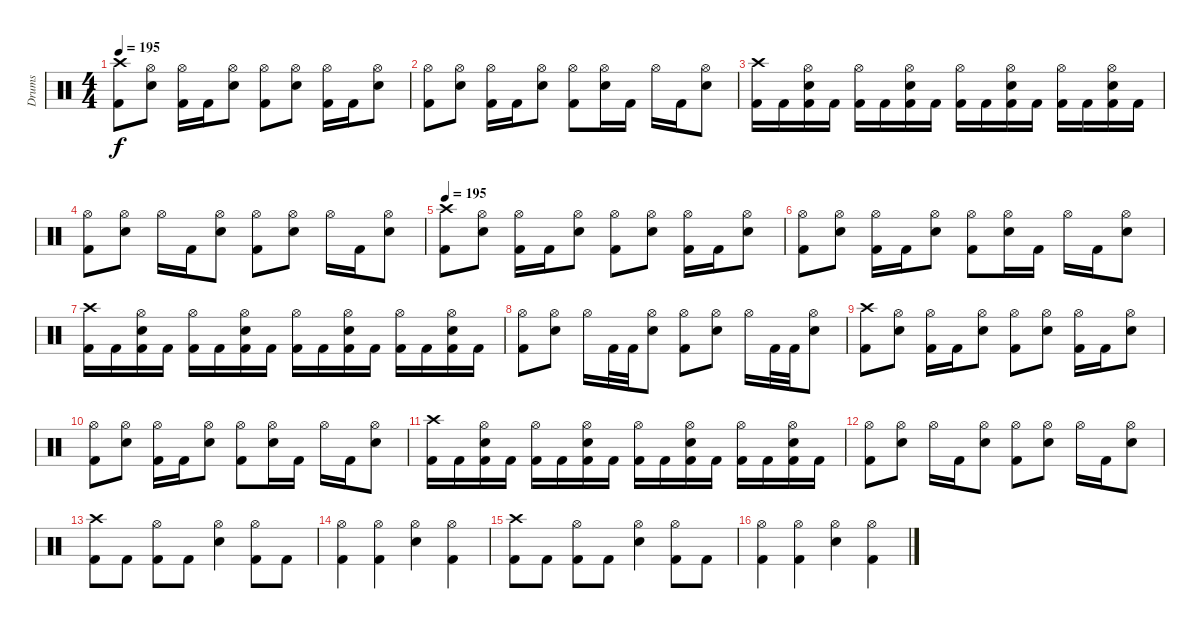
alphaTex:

\track ("Drums" "Drums") {instrument percussion}
\staff {score}
\articulation defaults
\ts (4 4)
\tempo 195
\clef neutral
\ks c
("Crash high (hit)" "Kick (hit) 2").8{dy f} ("Hi-Hat (open)" "Snare (hit) 2").8 ("Hi-Hat (open)" "Kick (hit) 2").16 "Kick (hit) 2".16 ("Hi-Hat (open)" "Snare (hit) 2").8 ("Hi-Hat (open)" "Kick (hit) 2").8 ("Hi-Hat (open)" "Snare (hit) 2").8 ("Hi-Hat (open)" "Kick (hit) 2").16 "Kick (hit) 2".16 ("Hi-Hat (open)" "Snare (hit) 2").8 |
("Hi-Hat (open)" "Kick (hit) 2").8 ("Hi-Hat (open)" "Snare (hit) 2").8 ("Hi-Hat (open)" "Kick (hit) 2").16 "Kick (hit) 2".16 ("Hi-Hat (open)" "Snare (hit) 2").8 ("Hi-Hat (open)" "Kick (hit) 2").8 ("Hi-Hat (open)" "Snare (hit) 2").16 "Kick (hit) 2".16 "Hi-Hat (open)".16 "Kick (hit) 2".16 ("Hi-Hat (open)" "Snare (hit) 2").8 |
("Crash high (hit)" "Kick (hit) 2").16 "Kick (hit) 2".16 ("Hi-Hat (open)" "Snare (hit) 2" "Kick (hit) 2").16 "Kick (hit) 2".16 ("Hi-Hat (open)" "Kick (hit) 2").16 "Kick (hit) 2".16 ("Hi-Hat (open)" "Snare (hit) 2" "Kick (hit) 2").16 "Kick (hit) 2".16 ("Hi-Hat (open)" "Kick (hit) 2").16 "Kick (hit) 2".16 ("Hi-Hat (open)" "Snare (hit) 2" "Kick (hit) 2").16 "Kick (hit) 2".16 ("Hi-Hat (open)" "Kick (hit) 2").16 "Kick (hit) 2".16 ("Hi-Hat (open)" "Snare (hit) 2" "Kick (hit) 2").16 "Kick (hit) 2".16 |
("Hi-Hat (open)" "Kick (hit) 2").8 ("Hi-Hat (open)" "Snare (hit) 2").8 "Hi-Hat (open)".16 "Kick (hit) 2".16 ("Hi-Hat (open)" "Snare (hit) 2").8 ("Hi-Hat (open)" "Kick (hit) 2").8 ("Hi-Hat (open)" "Snare (hit) 2").8 "Hi-Hat (open)".16 "Kick (hit) 2".16 ("Hi-Hat (open)" "Snare (hit) 2").8 |
\tempo 195
("Crash high (hit)" "Kick (hit) 2").8 ("Hi-Hat (open)" "Snare (hit) 2").8 ("Hi-Hat (open)" "Kick (hit) 2").16 "Kick (hit) 2".16 ("Hi-Hat (open)" "Snare (hit) 2").8 ("Hi-Hat (open)" "Kick (hit) 2").8 ("Hi-Hat (open)" "Snare (hit) 2").8 ("Hi-Hat (open)" "Kick (hit) 2").16 "Kick (hit) 2".16 ("Hi-Hat (open)" "Snare (hit) 2").8 |
("Hi-Hat (open)" "Kick (hit) 2").8 ("Hi-Hat (open)" "Snare (hit) 2").8 ("Hi-Hat (open)" "Kick (hit) 2").16 "Kick (hit) 2".16 ("Hi-Hat (open)" "Snare (hit) 2").8 ("Hi-Hat (open)" "Kick (hit) 2").8 ("Hi-Hat (open)" "Snare (hit) 2").16 "Kick (hit) 2".16 "Hi-Hat (open)".16 "Kick (hit) 2".16 ("Hi-Hat (open)" "Snare (hit) 2").8 |
("Crash high (hit)" "Kick (hit) 2").16 "Kick (hit) 2".16 ("Hi-Hat (open)" "Snare (hit) 2" "Kick (hit) 2").16 "Kick (hit) 2".16 ("Hi-Hat (open)" "Kick (hit) 2").16 "Kick (hit) 2".16 ("Hi-Hat (open)" "Snare (hit) 2" "Kick (hit) 2").16 "Kick (hit) 2".16 ("Hi-Hat (open)" "Kick (hit) 2").16 "Kick (hit) 2".16 ("Hi-Hat (open)" "Snare (hit) 2" "Kick (hit) 2").16 "Kick (hit) 2".16 ("Hi-Hat (open)" "Kick (hit) 2").16 "Kick (hit) 2".16 ("Hi-Hat (open)" "Snare (hit) 2" "Kick (hit) 2").16 "Kick (hit) 2".16 |
("Hi-Hat (open)" "Kick (hit) 2").8 ("Hi-Hat (open)" "Snare (hit) 2").8 "Hi-Hat (open)".16 "Kick (hit) 2".32 "Kick (hit) 2".32 ("Hi-Hat (open)" "Snare (hit) 2").8 ("Hi-Hat (open)" "Kick (hit) 2").8 ("Hi-Hat (open)" "Snare (hit) 2").8 "Hi-Hat (open)".16 "Kick (hit) 2".32 "Kick (hit) 2".32 ("Hi-Hat (open)" "Snare (hit) 2").8 |
("Crash high (hit)" "Kick (hit) 2").8 ("Hi-Hat (open)" "Snare (hit) 2").8 ("Hi-Hat (open)" "Kick (hit) 2").16 "Kick (hit) 2".16 ("Hi-Hat (open)" "Snare (hit) 2").8 ("Hi-Hat (open)" "Kick (hit) 2").8 ("Hi-Hat (open)" "Snare (hit) 2").8 ("Hi-Hat (open)" "Kick (hit) 2").16 "Kick (hit) 2".16 ("Hi-Hat (open)" "Snare (hit) 2").8 |
("Hi-Hat (open)" "Kick (hit) 2").8 ("Hi-Hat (open)" "Snare (hit) 2").8 ("Hi-Hat (open)" "Kick (hit) 2").16 "Kick (hit) 2".16 ("Hi-Hat (open)" "Snare (hit) 2").8 ("Hi-Hat (open)" "Kick (hit) 2").8 ("Hi-Hat (open)" "Snare (hit) 2").16 "Kick (hit) 2".16 "Hi-Hat (open)".16 "Kick (hit) 2".16 ("Hi-Hat (open)" "Snare (hit) 2").8 |
("Crash high (hit)" "Kick (hit) 2").16 "Kick (hit) 2".16 ("Hi-Hat (open)" "Snare (hit) 2" "Kick (hit) 2").16 "Kick (hit) 2".16 ("Hi-Hat (open)" "Kick (hit) 2").16 "Kick (hit) 2".16 ("Hi-Hat (open)" "Snare (hit) 2" "Kick (hit) 2").16 "Kick (hit) 2".16 ("Hi-Hat (open)" "Kick (hit) 2").16 "Kick (hit) 2".16 ("Hi-Hat (open)" "Snare (hit) 2" "Kick (hit) 2").16 "Kick (hit) 2".16 ("Hi-Hat (open)" "Kick (hit) 2").16 "Kick (hit) 2".16 ("Hi-Hat (open)" "Snare (hit) 2" "Kick (hit) 2").16 "Kick (hit) 2".16 |
("Hi-Hat (open)" "Kick (hit) 2").8 ("Hi-Hat (open)" "Snare (hit) 2").8 "Hi-Hat (open)".16 "Kick (hit) 2".16 ("Hi-Hat (open)" "Snare (hit) 2").8 ("Hi-Hat (open)" "Kick (hit) 2").8 ("Hi-Hat (open)" "Snare (hit) 2").8 "Hi-Hat (open)".16 "Kick (hit) 2".16 ("Hi-Hat (open)" "Snare (hit) 2").8 |
("Crash high (hit)" "Kick (hit) 2").8 "Kick (hit) 2".8 ("Hi-Hat (open)" "Kick (hit) 2").8 "Kick (hit) 2".8 ("Hi-Hat (open)" "Snare (hit) 2").4 ("Hi-Hat (open)" "Kick (hit) 2").8 "Kick (hit) 2".8 |
("Hi-Hat (open)" "Kick (hit) 2").4 ("Hi-Hat (open)" "Kick (hit) 2").4 ("Hi-Hat (open)" "Snare (hit) 2").4 ("Hi-Hat (open)" "Kick (hit) 2").4 |
("Crash high (hit)" "Kick (hit) 2").8 "Kick (hit) 2".8 ("Hi-Hat (open)" "Kick (hit) 2").8 "Kick (hit) 2".8 ("Hi-Hat (open)" "Snare (hit) 2").4 ("Hi-Hat (open)" "Kick (hit) 2").8 "Kick (hit) 2".8 |
("Hi-Hat (open)" "Kick (hit) 2").4 ("Hi-Hat (open)" "Kick (hit) 2").4 ("Hi-Hat (open)" "Snare (hit) 2").4 ("Hi-Hat (open)" "Kick (hit) 2").4
